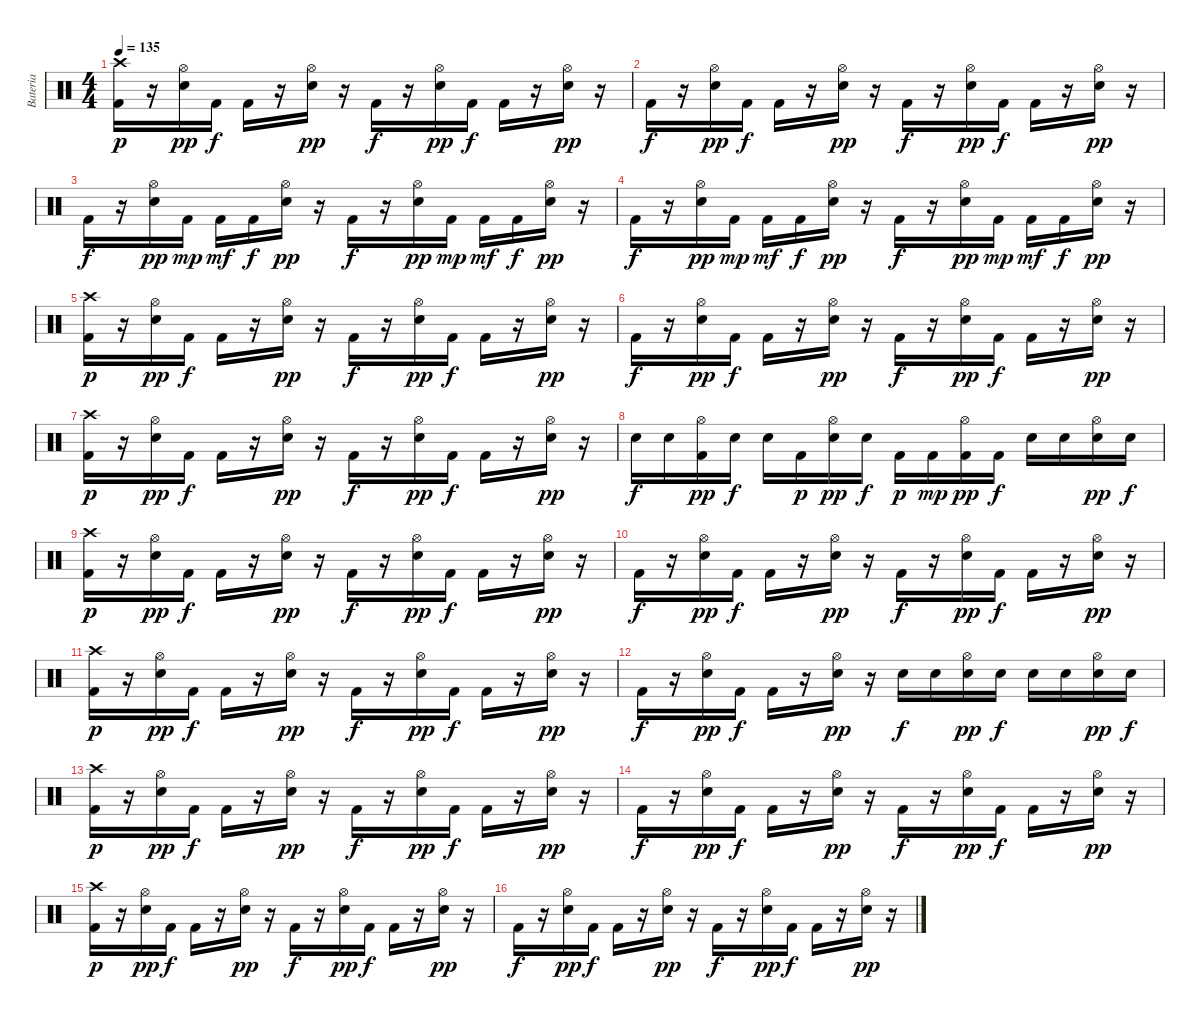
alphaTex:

\track ("Bateria" "Bateria") {instrument percussion}
\staff {score}
\articulation defaults
\ts (4 4)
\tempo 135
\clef neutral
\ks c
("Kick (hit) 2" "Crash high (hit)").16{dy p} r.16 ("Electric Snare (hit)" "Hi-Hat (open)").16{dy pp} "Kick (hit) 2".16{dy f} "Kick (hit) 2".16 r.16 ("Electric Snare (hit)" "Hi-Hat (open)").16{dy pp} r.16 "Kick (hit) 2".16{dy f} r.16 ("Electric Snare (hit)" "Hi-Hat (open)").16{dy pp} "Kick (hit) 2".16{dy f} "Kick (hit) 2".16 r.16 ("Electric Snare (hit)" "Hi-Hat (open)").16{dy pp} r.16 |
"Kick (hit) 2".16{dy f} r.16 ("Electric Snare (hit)" "Hi-Hat (open)").16{dy pp} "Kick (hit) 2".16{dy f} "Kick (hit) 2".16 r.16 ("Electric Snare (hit)" "Hi-Hat (open)").16{dy pp} r.16 "Kick (hit) 2".16{dy f} r.16 ("Electric Snare (hit)" "Hi-Hat (open)").16{dy pp} "Kick (hit) 2".16{dy f} "Kick (hit) 2".16 r.16 ("Electric Snare (hit)" "Hi-Hat (open)").16{dy pp} r.16 |
"Kick (hit) 2".16{dy f} r.16 ("Electric Snare (hit)" "Hi-Hat (open)").16{dy pp} "Kick (hit) 2".16{dy mp} "Kick (hit) 2".16{dy mf} "Kick (hit) 2".16{dy f} ("Electric Snare (hit)" "Hi-Hat (open)").16{dy pp} r.16 "Kick (hit) 2".16{dy f} r.16 ("Electric Snare (hit)" "Hi-Hat (open)").16{dy pp} "Kick (hit) 2".16{dy mp} "Kick (hit) 2".16{dy mf} "Kick (hit) 2".16{dy f} ("Electric Snare (hit)" "Hi-Hat (open)").16{dy pp} r.16 |
"Kick (hit) 2".16{dy f} r.16 ("Electric Snare (hit)" "Hi-Hat (open)").16{dy pp} "Kick (hit) 2".16{dy mp} "Kick (hit) 2".16{dy mf} "Kick (hit) 2".16{dy f} ("Electric Snare (hit)" "Hi-Hat (open)").16{dy pp} r.16 "Kick (hit) 2".16{dy f} r.16 ("Electric Snare (hit)" "Hi-Hat (open)").16{dy pp} "Kick (hit) 2".16{dy mp} "Kick (hit) 2".16{dy mf} "Kick (hit) 2".16{dy f} ("Electric Snare (hit)" "Hi-Hat (open)").16{dy pp} r.16 |
("Kick (hit) 2" "Crash high (hit)").16{dy p} r.16 ("Electric Snare (hit)" "Hi-Hat (open)").16{dy pp} "Kick (hit) 2".16{dy f} "Kick (hit) 2".16 r.16 ("Electric Snare (hit)" "Hi-Hat (open)").16{dy pp} r.16 "Kick (hit) 2".16{dy f} r.16 ("Electric Snare (hit)" "Hi-Hat (open)").16{dy pp} "Kick (hit) 2".16{dy f} "Kick (hit) 2".16 r.16 ("Electric Snare (hit)" "Hi-Hat (open)").16{dy pp} r.16 |
"Kick (hit) 2".16{dy f} r.16 ("Electric Snare (hit)" "Hi-Hat (open)").16{dy pp} "Kick (hit) 2".16{dy f} "Kick (hit) 2".16 r.16 ("Electric Snare (hit)" "Hi-Hat (open)").16{dy pp} r.16 "Kick (hit) 2".16{dy f} r.16 ("Electric Snare (hit)" "Hi-Hat (open)").16{dy pp} "Kick (hit) 2".16{dy f} "Kick (hit) 2".16 r.16 ("Electric Snare (hit)" "Hi-Hat (open)").16{dy pp} r.16 |
("Kick (hit) 2" "Crash high (hit)").16{dy p} r.16 ("Electric Snare (hit)" "Hi-Hat (open)").16{dy pp} "Kick (hit) 2".16{dy f} "Kick (hit) 2".16 r.16 ("Electric Snare (hit)" "Hi-Hat (open)").16{dy pp} r.16 "Kick (hit) 2".16{dy f} r.16 ("Electric Snare (hit)" "Hi-Hat (open)").16{dy pp} "Kick (hit) 2".16{dy f} "Kick (hit) 2".16 r.16 ("Electric Snare (hit)" "Hi-Hat (open)").16{dy pp} r.16 |
"Electric Snare (hit)".16{dy f} "Electric Snare (hit)".16 ("Kick (hit) 2" "Hi-Hat (open)").16{dy pp} "Electric Snare (hit)".16{dy f} "Electric Snare (hit)".16 "Kick (hit) 2".16{dy p} ("Electric Snare (hit)" "Hi-Hat (open)").16{dy pp} "Electric Snare (hit)".16{dy f} "Kick (hit) 2".16{dy p} "Kick (hit) 2".16{dy mp} ("Kick (hit) 2" "Hi-Hat (open)").16{dy pp} "Kick (hit) 2".16{dy f} "Electric Snare (hit)".16 "Electric Snare (hit)".16 ("Electric Snare (hit)" "Hi-Hat (open)").16{dy pp} "Electric Snare (hit)".16{dy f} |
("Kick (hit) 2" "Crash high (hit)").16{dy p} r.16 ("Electric Snare (hit)" "Hi-Hat (open)").16{dy pp} "Kick (hit) 2".16{dy f} "Kick (hit) 2".16 r.16 ("Electric Snare (hit)" "Hi-Hat (open)").16{dy pp} r.16 "Kick (hit) 2".16{dy f} r.16 ("Electric Snare (hit)" "Hi-Hat (open)").16{dy pp} "Kick (hit) 2".16{dy f} "Kick (hit) 2".16 r.16 ("Electric Snare (hit)" "Hi-Hat (open)").16{dy pp} r.16 |
"Kick (hit) 2".16{dy f} r.16 ("Electric Snare (hit)" "Hi-Hat (open)").16{dy pp} "Kick (hit) 2".16{dy f} "Kick (hit) 2".16 r.16 ("Electric Snare (hit)" "Hi-Hat (open)").16{dy pp} r.16 "Kick (hit) 2".16{dy f} r.16 ("Electric Snare (hit)" "Hi-Hat (open)").16{dy pp} "Kick (hit) 2".16{dy f} "Kick (hit) 2".16 r.16 ("Electric Snare (hit)" "Hi-Hat (open)").16{dy pp} r.16 |
("Kick (hit) 2" "Crash high (hit)").16{dy p} r.16 ("Electric Snare (hit)" "Hi-Hat (open)").16{dy pp} "Kick (hit) 2".16{dy f} "Kick (hit) 2".16 r.16 ("Electric Snare (hit)" "Hi-Hat (open)").16{dy pp} r.16 "Kick (hit) 2".16{dy f} r.16 ("Electric Snare (hit)" "Hi-Hat (open)").16{dy pp} "Kick (hit) 2".16{dy f} "Kick (hit) 2".16 r.16 ("Electric Snare (hit)" "Hi-Hat (open)").16{dy pp} r.16 |
"Kick (hit) 2".16{dy f} r.16 ("Electric Snare (hit)" "Hi-Hat (open)").16{dy pp} "Kick (hit) 2".16{dy f} "Kick (hit) 2".16 r.16 ("Electric Snare (hit)" "Hi-Hat (open)").16{dy pp} r.16 "Electric Snare (hit)".16{dy f} "Electric Snare (hit)".16 ("Electric Snare (hit)" "Hi-Hat (open)").16{dy pp} "Electric Snare (hit)".16{dy f} "Electric Snare (hit)".16 "Electric Snare (hit)".16 ("Electric Snare (hit)" "Hi-Hat (open)").16{dy pp} "Electric Snare (hit)".16{dy f} |
("Kick (hit) 2" "Crash high (hit)").16{dy p} r.16 ("Electric Snare (hit)" "Hi-Hat (open)").16{dy pp} "Kick (hit) 2".16{dy f} "Kick (hit) 2".16 r.16 ("Electric Snare (hit)" "Hi-Hat (open)").16{dy pp} r.16 "Kick (hit) 2".16{dy f} r.16 ("Electric Snare (hit)" "Hi-Hat (open)").16{dy pp} "Kick (hit) 2".16{dy f} "Kick (hit) 2".16 r.16 ("Electric Snare (hit)" "Hi-Hat (open)").16{dy pp} r.16 |
"Kick (hit) 2".16{dy f} r.16 ("Electric Snare (hit)" "Hi-Hat (open)").16{dy pp} "Kick (hit) 2".16{dy f} "Kick (hit) 2".16 r.16 ("Electric Snare (hit)" "Hi-Hat (open)").16{dy pp} r.16 "Kick (hit) 2".16{dy f} r.16 ("Electric Snare (hit)" "Hi-Hat (open)").16{dy pp} "Kick (hit) 2".16{dy f} "Kick (hit) 2".16 r.16 ("Electric Snare (hit)" "Hi-Hat (open)").16{dy pp} r.16 |
("Kick (hit) 2" "Crash high (hit)").16{dy p} r.16 ("Electric Snare (hit)" "Hi-Hat (open)").16{dy pp} "Kick (hit) 2".16{dy f} "Kick (hit) 2".16 r.16 ("Electric Snare (hit)" "Hi-Hat (open)").16{dy pp} r.16 "Kick (hit) 2".16{dy f} r.16 ("Electric Snare (hit)" "Hi-Hat (open)").16{dy pp} "Kick (hit) 2".16{dy f} "Kick (hit) 2".16 r.16 ("Electric Snare (hit)" "Hi-Hat (open)").16{dy pp} r.16 |
"Kick (hit) 2".16{dy f} r.16 ("Electric Snare (hit)" "Hi-Hat (open)").16{dy pp} "Kick (hit) 2".16{dy f} "Kick (hit) 2".16 r.16 ("Electric Snare (hit)" "Hi-Hat (open)").16{dy pp} r.16 "Kick (hit) 2".16{dy f} r.16 ("Electric Snare (hit)" "Hi-Hat (open)").16{dy pp} "Kick (hit) 2".16{dy f} "Kick (hit) 2".16 r.16 ("Electric Snare (hit)" "Hi-Hat (open)").16{dy pp} r.16
